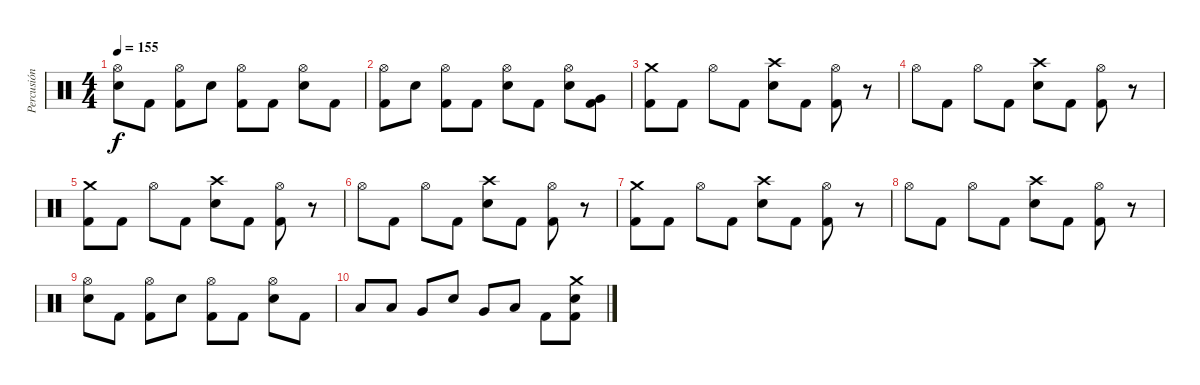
\track ("Percusión" "Percusión") {instrument percussion}
\staff {score}
\articulation defaults
\ts (4 4)
\tempo 155
\clef neutral
\ks c
("Hi-Hat (open)" "Electric Snare (hit)").8{dy f} "Kick (hit) 2".8 ("Hi-Hat (open)" "Kick (hit) 2").8 "Electric Snare (hit)".8 ("Hi-Hat (open)" "Kick (hit) 2").8 "Kick (hit) 2".8 ("Hi-Hat (open)" "Electric Snare (hit)").8 "Kick (hit) 2".8 |
("Hi-Hat (open)" "Kick (hit) 2").8 "Electric Snare (hit)".8 ("Hi-Hat (open)" "Kick (hit) 2").8 "Kick (hit) 2".8 ("Hi-Hat (open)" "Electric Snare (hit)").8 "Kick (hit) 2".8 ("Hi-Hat (open)" "Electric Snare (hit)").8 ("Very Low Tom (hit)" "Kick (hit) 2").8 |
("Crash medium (hit)" "Kick (hit) 2").8 "Kick (hit) 2".8 "Hi-Hat (open)".8 "Kick (hit) 2".8 ("Crash high (hit)" "Electric Snare (hit)").8 "Kick (hit) 2".8 ("Hi-Hat (open)" "Kick (hit) 2").8 r.8 |
"Hi-Hat (open)".8 "Kick (hit) 2".8 "Hi-Hat (open)".8 "Kick (hit) 2".8 ("Crash high (hit)" "Electric Snare (hit)").8 "Kick (hit) 2".8 ("Hi-Hat (open)" "Kick (hit) 2").8 r.8 |
("Crash medium (hit)" "Kick (hit) 2").8 "Kick (hit) 2".8 "Hi-Hat (open)".8 "Kick (hit) 2".8 ("Crash high (hit)" "Electric Snare (hit)").8 "Kick (hit) 2".8 ("Hi-Hat (open)" "Kick (hit) 2").8 r.8 |
"Hi-Hat (open)".8 "Kick (hit) 2".8 "Hi-Hat (open)".8 "Kick (hit) 2".8 ("Crash high (hit)" "Electric Snare (hit)").8 "Kick (hit) 2".8 ("Hi-Hat (open)" "Kick (hit) 2").8 r.8 |
("Crash medium (hit)" "Kick (hit) 2").8 "Kick (hit) 2".8 "Hi-Hat (open)".8 "Kick (hit) 2".8 ("Crash high (hit)" "Electric Snare (hit)").8 "Kick (hit) 2".8 ("Hi-Hat (open)" "Kick (hit) 2").8 r.8 |
"Hi-Hat (open)".8 "Kick (hit) 2".8 "Hi-Hat (open)".8 "Kick (hit) 2".8 ("Crash high (hit)" "Electric Snare (hit)").8 "Kick (hit) 2".8 ("Hi-Hat (open)" "Kick (hit) 2").8 r.8 |
("Hi-Hat (open)" "Electric Snare (hit)").8 "Kick (hit) 2".8 ("Hi-Hat (open)" "Kick (hit) 2").8 "Electric Snare (hit)".8 ("Hi-Hat (open)" "Kick (hit) 2").8 "Kick (hit) 2".8 ("Hi-Hat (open)" "Electric Snare (hit)").8 "Kick (hit) 2".8 |
"Low Tom (hit)".8 "Low Tom (hit)".8 "Very Low Tom (hit)".8 "Electric Snare (hit)".8 "Very Low Tom (hit)".8 "Low Floor Tom (hit)".8 "Kick (hit) 2".8 ("Crash medium (hit)" "Electric Snare (hit)" "Kick (hit) 2").8
